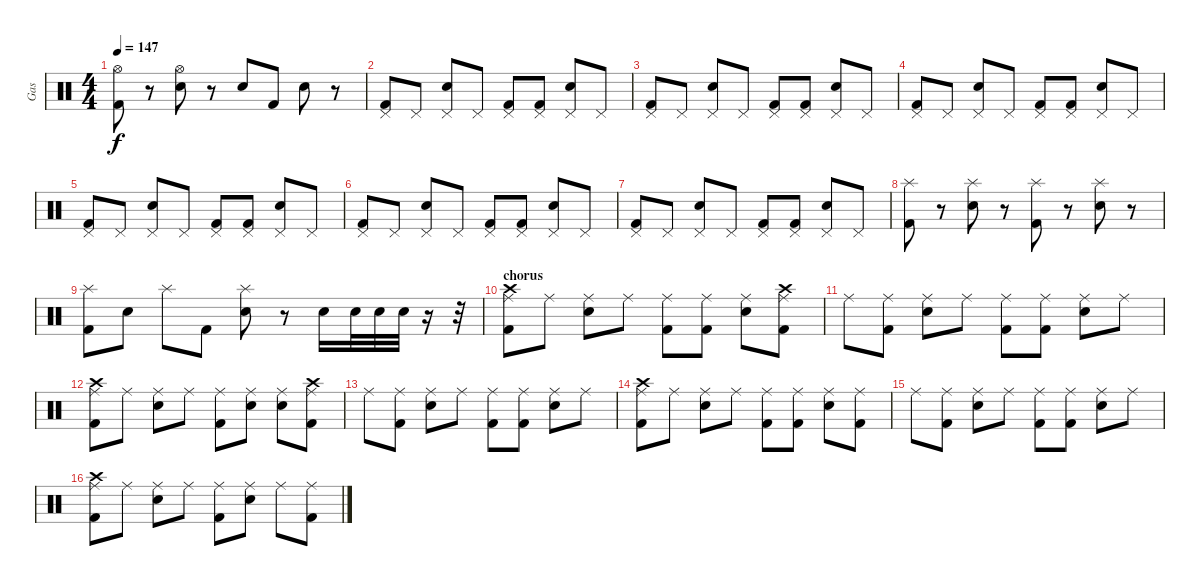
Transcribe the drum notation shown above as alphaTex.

\track ("Gas" "Gas") {instrument percussion}
\staff {score}
\articulation defaults
\ts (4 4)
\tempo 147
\clef neutral
\ks c
("Hi-Hat (open)" "Kick (hit) 2").8{dy f} r.8 ("Hi-Hat (open)" "Electric Snare (hit)").8 r.8 "Electric Snare (hit)".8 "Kick (hit) 2".8 "Electric Snare (hit)".8 r.8 |
("Pedal Hi-Hat (hit)" "Kick (hit) 2").8 "Pedal Hi-Hat (hit)".8 ("Pedal Hi-Hat (hit)" "Electric Snare (hit)").8 "Pedal Hi-Hat (hit)".8 ("Pedal Hi-Hat (hit)" "Kick (hit) 2").8 ("Pedal Hi-Hat (hit)" "Kick (hit) 2").8 ("Pedal Hi-Hat (hit)" "Electric Snare (hit)").8 "Pedal Hi-Hat (hit)".8 |
("Pedal Hi-Hat (hit)" "Kick (hit) 2").8 "Pedal Hi-Hat (hit)".8 ("Pedal Hi-Hat (hit)" "Electric Snare (hit)").8 "Pedal Hi-Hat (hit)".8 ("Pedal Hi-Hat (hit)" "Kick (hit) 2").8 ("Pedal Hi-Hat (hit)" "Kick (hit) 2").8 ("Pedal Hi-Hat (hit)" "Electric Snare (hit)").8 "Pedal Hi-Hat (hit)".8 |
("Pedal Hi-Hat (hit)" "Kick (hit) 2").8 "Pedal Hi-Hat (hit)".8 ("Pedal Hi-Hat (hit)" "Electric Snare (hit)").8 "Pedal Hi-Hat (hit)".8 ("Pedal Hi-Hat (hit)" "Kick (hit) 2").8 ("Pedal Hi-Hat (hit)" "Kick (hit) 2").8 ("Pedal Hi-Hat (hit)" "Electric Snare (hit)").8 "Pedal Hi-Hat (hit)".8 |
("Pedal Hi-Hat (hit)" "Kick (hit) 2").8 "Pedal Hi-Hat (hit)".8 ("Pedal Hi-Hat (hit)" "Electric Snare (hit)").8 "Pedal Hi-Hat (hit)".8 ("Pedal Hi-Hat (hit)" "Kick (hit) 2").8 ("Pedal Hi-Hat (hit)" "Kick (hit) 2").8 ("Pedal Hi-Hat (hit)" "Electric Snare (hit)").8 "Pedal Hi-Hat (hit)".8 |
("Pedal Hi-Hat (hit)" "Kick (hit) 2").8 "Pedal Hi-Hat (hit)".8 ("Pedal Hi-Hat (hit)" "Electric Snare (hit)").8 "Pedal Hi-Hat (hit)".8 ("Pedal Hi-Hat (hit)" "Kick (hit) 2").8 ("Pedal Hi-Hat (hit)" "Kick (hit) 2").8 ("Pedal Hi-Hat (hit)" "Electric Snare (hit)").8 "Pedal Hi-Hat (hit)".8 |
("Pedal Hi-Hat (hit)" "Kick (hit) 2").8 "Pedal Hi-Hat (hit)".8 ("Pedal Hi-Hat (hit)" "Electric Snare (hit)").8 "Pedal Hi-Hat (hit)".8 ("Pedal Hi-Hat (hit)" "Kick (hit) 2").8 ("Pedal Hi-Hat (hit)" "Kick (hit) 2").8 ("Pedal Hi-Hat (hit)" "Electric Snare (hit)").8 "Pedal Hi-Hat (hit)".8 |
("Splash (hit)" "Kick (hit) 2").8 r.8 ("Splash (hit)" "Electric Snare (hit)").8 r.8 ("Splash (hit)" "Kick (hit) 2").8 r.8 ("Splash (hit)" "Electric Snare (hit)").8 r.8 |
("Splash (hit)" "Kick (hit) 2").8 "Electric Snare (hit)".8 "Splash (hit)".8 "Kick (hit) 2".8 ("Splash (hit)" "Electric Snare (hit)").8 r.8 "Electric Snare (hit)".16 "Electric Snare (hit)".32 "Electric Snare (hit)".32 "Electric Snare (hit)".32 r.16 r.32 |
\section ("" "chorus")
("Ride (middle)" "Crash high (hit)" "Kick (hit) 2").8 "Ride (middle)".8 ("Ride (middle)" "Electric Snare (hit)").8 "Ride (middle)".8 ("Ride (middle)" "Kick (hit) 2").8 ("Ride (middle)" "Kick (hit) 2").8 ("Ride (middle)" "Electric Snare (hit)").8 ("Ride (middle)" "Crash high (hit)" "Kick (hit) 2").8 |
"Ride (middle)".8 ("Ride (middle)" "Kick (hit) 2").8 ("Ride (middle)" "Electric Snare (hit)").8 "Ride (middle)".8 ("Ride (middle)" "Kick (hit) 2").8 ("Ride (middle)" "Kick (hit) 2").8 ("Ride (middle)" "Electric Snare (hit)").8 "Ride (middle)".8 |
("Ride (middle)" "Crash high (hit)" "Kick (hit) 2").8 "Ride (middle)".8 ("Ride (middle)" "Electric Snare (hit)").8 "Ride (middle)".8 ("Ride (middle)" "Kick (hit) 2").8 ("Ride (middle)" "Electric Snare (hit)").8 ("Ride (middle)" "Electric Snare (hit)").8 ("Ride (middle)" "Crash high (hit)" "Kick (hit) 2").8 |
"Ride (middle)".8 ("Ride (middle)" "Kick (hit) 2").8 ("Ride (middle)" "Electric Snare (hit)").8 "Ride (middle)".8 ("Ride (middle)" "Kick (hit) 2").8 ("Ride (middle)" "Kick (hit) 2").8 ("Ride (middle)" "Electric Snare (hit)").8 "Ride (middle)".8 |
("Ride (middle)" "Crash high (hit)" "Kick (hit) 2").8 "Ride (middle)".8 ("Ride (middle)" "Electric Snare (hit)").8 "Ride (middle)".8 ("Ride (middle)" "Kick (hit) 2").8 ("Ride (middle)" "Kick (hit) 2").8 ("Ride (middle)" "Electric Snare (hit)").8 ("Ride (middle)" "Kick (hit) 2").8 |
"Ride (middle)".8 ("Ride (middle)" "Kick (hit) 2").8 ("Ride (middle)" "Electric Snare (hit)").8 "Ride (middle)".8 ("Ride (middle)" "Kick (hit) 2").8 ("Ride (middle)" "Kick (hit) 2").8 ("Ride (middle)" "Electric Snare (hit)").8 "Ride (middle)".8 |
("Ride (middle)" "Crash high (hit)" "Kick (hit) 2").8 "Ride (middle)".8 ("Ride (middle)" "Electric Snare (hit)").8 "Ride (middle)".8 ("Ride (middle)" "Kick (hit) 2").8 ("Ride (middle)" "Electric Snare (hit)").8 "Ride (middle)".8 ("Ride (middle)" "Kick (hit) 2").8
